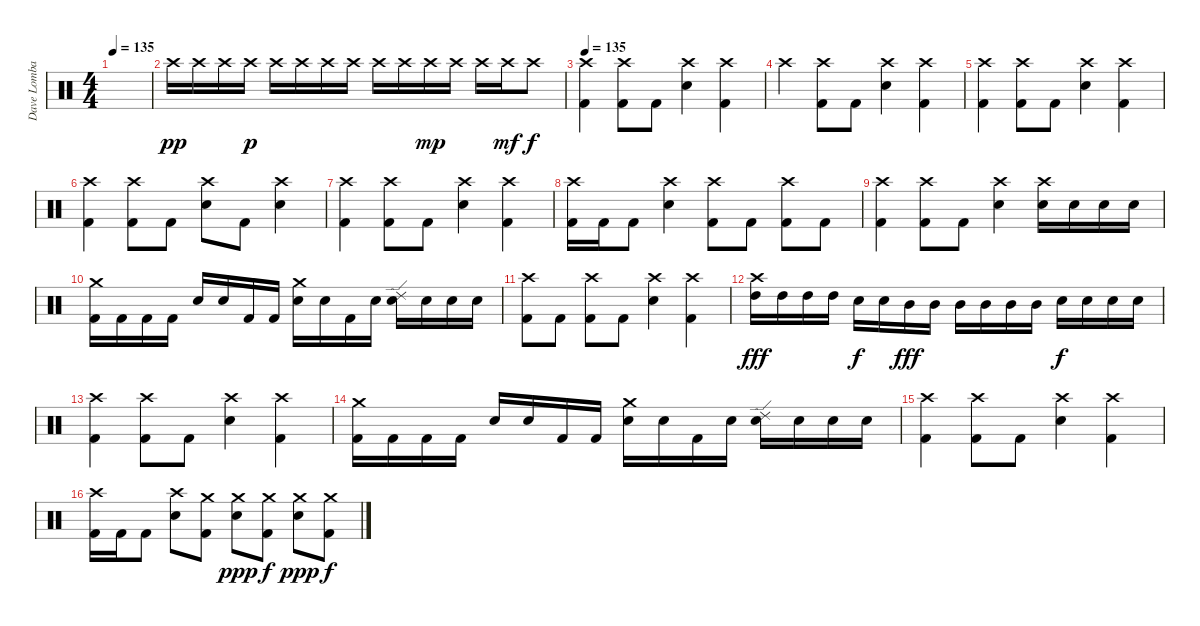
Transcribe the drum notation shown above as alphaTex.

\track ("Dave Lombardo - Drums" "Dave Lomba") {instrument percussion}
\staff {score}
\articulation defaults
\ts (4 4)
\tempo 135
\clef neutral
\ks c
|
"Crash high (hit)".16{dy pp} "Crash high (hit)".16 "Crash high (hit)".16 "Crash high (hit)".16{dy p} "Crash high (hit)".16 "Crash high (hit)".16 "Crash high (hit)".16 "Crash high (hit)".16 "Crash high (hit)".16 "Crash high (hit)".16 "Crash high (hit)".16{dy mp} "Crash high (hit)".16 "Crash high (hit)".16 "Crash high (hit)".16{dy mf} "Crash high (hit)".8{dy f} |
\tempo 135
("Crash high (hit)" "Kick (hit) 2").4 ("Crash high (hit)" "Kick (hit) 2").8 "Kick (hit) 2".8 ("Crash high (hit)" "Electric Snare (hit)").4 ("Crash high (hit)" "Kick (hit) 2").4 |
"Crash high (hit)".4 ("Crash high (hit)" "Kick (hit) 2").8 "Kick (hit) 2".8 ("Crash high (hit)" "Electric Snare (hit)").4 ("Crash high (hit)" "Kick (hit) 2").4 |
("Crash high (hit)" "Kick (hit) 2").4 ("Crash high (hit)" "Kick (hit) 2").8 "Kick (hit) 2".8 ("Crash high (hit)" "Electric Snare (hit)").4 ("Crash high (hit)" "Kick (hit) 2").4 |
("Crash high (hit)" "Kick (hit) 2").4 ("Crash high (hit)" "Kick (hit) 2").8 "Kick (hit) 2".8 ("Crash high (hit)" "Electric Snare (hit)").8 "Kick (hit) 2".8 ("Crash high (hit)" "Electric Snare (hit)").4 |
("Crash high (hit)" "Kick (hit) 2").4 ("Crash high (hit)" "Kick (hit) 2").8 "Kick (hit) 2".8 ("Crash high (hit)" "Electric Snare (hit)").4 ("Crash high (hit)" "Kick (hit) 2").4 |
("Crash high (hit)" "Kick (hit) 2").16 "Kick (hit) 2".16 "Kick (hit) 2".8 ("Crash high (hit)" "Electric Snare (hit)").4 ("Crash high (hit)" "Kick (hit) 2").8 "Kick (hit) 2".8 ("Crash high (hit)" "Kick (hit) 2").8 "Kick (hit) 2".8 |
("Crash high (hit)" "Kick (hit) 2").4 ("Crash high (hit)" "Kick (hit) 2").8 "Kick (hit) 2".8 ("Crash high (hit)" "Electric Snare (hit)").4 ("Crash high (hit)" "Electric Snare (hit)").16 "Electric Snare (hit)".16 "Electric Snare (hit)".16 "Electric Snare (hit)".16 |
("Crash medium (hit)" "Kick (hit) 2").16 "Kick (hit) 2".16 "Kick (hit) 2".16 "Kick (hit) 2".16 "Electric Snare (hit)".16 "Electric Snare (hit)".16 "Kick (hit) 2".16 "Kick (hit) 2".16 ("Crash medium (hit)" "Electric Snare (hit)").16 "Electric Snare (hit)".16 "Kick (hit) 2".16 "Electric Snare (hit)".16 ("Ride (edge) 2" "Electric Snare (hit)").16 "Electric Snare (hit)".16 "Electric Snare (hit)".16 "Electric Snare (hit)".16 |
("Crash high (hit)" "Kick (hit) 2").8 "Kick (hit) 2".8 ("Crash high (hit)" "Kick (hit) 2").8 "Kick (hit) 2".8 ("Crash high (hit)" "Electric Snare (hit)").4 ("Crash high (hit)" "Kick (hit) 2").4 |
("Crash high (hit)" "High Tom (hit)").16{dy fff} "High Tom (hit)".16 "High Tom (hit)".16 "High Tom (hit)".16 "Electric Snare (hit)".16{dy f} "Electric Snare (hit)".16 "Mid Tom (hit)".16{dy fff} "Mid Tom (hit)".16 "Mid Tom (hit)".16 "Mid Tom (hit)".16 "Mid Tom (hit)".16 "Mid Tom (hit)".16 "Electric Snare (hit)".16{dy f} "Electric Snare (hit)".16 "Electric Snare (hit)".16 "Electric Snare (hit)".16 |
("Crash high (hit)" "Kick (hit) 2").4 ("Crash high (hit)" "Kick (hit) 2").8 "Kick (hit) 2".8 ("Crash high (hit)" "Electric Snare (hit)").4 ("Crash high (hit)" "Kick (hit) 2").4 |
("Crash medium (hit)" "Kick (hit) 2").16 "Kick (hit) 2".16 "Kick (hit) 2".16 "Kick (hit) 2".16 "Electric Snare (hit)".16 "Electric Snare (hit)".16 "Kick (hit) 2".16 "Kick (hit) 2".16 ("Crash medium (hit)" "Electric Snare (hit)").16 "Electric Snare (hit)".16 "Kick (hit) 2".16 "Electric Snare (hit)".16 ("Ride (edge) 2" "Electric Snare (hit)").16 "Electric Snare (hit)".16 "Electric Snare (hit)".16 "Electric Snare (hit)".16 |
("Crash high (hit)" "Kick (hit) 2").4 ("Crash high (hit)" "Kick (hit) 2").8 "Kick (hit) 2".8 ("Crash high (hit)" "Electric Snare (hit)").4 ("Crash high (hit)" "Kick (hit) 2").4 |
("Crash high (hit)" "Kick (hit) 2").16 "Kick (hit) 2".16 "Kick (hit) 2".8 ("Crash high (hit)" "Electric Snare (hit)").8 ("Crash medium (hit)" "Kick (hit) 2").8 ("Crash medium (hit)" "Electric Snare (hit)").8{dy ppp} ("Crash medium (hit)" "Kick (hit) 2").8{dy f} ("Crash medium (hit)" "Electric Snare (hit)").8{dy ppp} ("Crash medium (hit)" "Kick (hit) 2").8{dy f}
